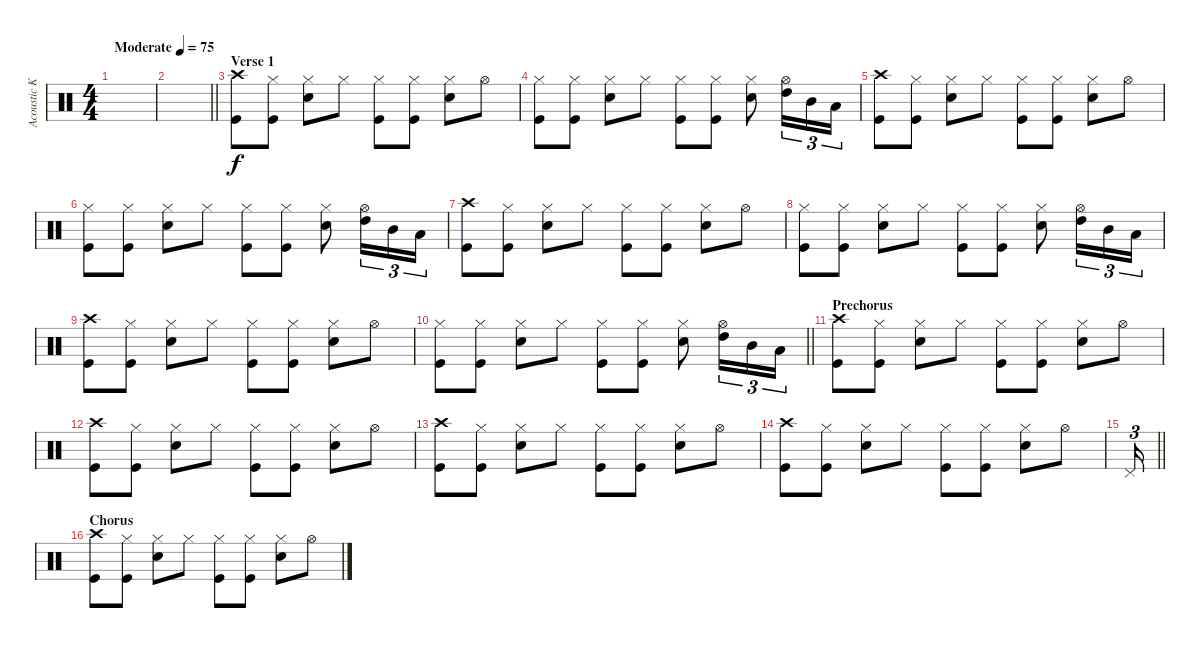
\track ("Acoustic Kit" "Acoustic K") {instrument percussion}
\staff {score}
\articulation defaults
\ts (4 4)
\tempo (75 "Moderate")
\clef neutral
\ks c
|
\barLineRight lightlight
|
\section ("" "Verse 1")
("Crash high (hit)" "Kick (hit)").8 ("Hi-Hat (closed)" "Kick (hit)").8 ("Hi-Hat (closed)" "Snare (hit) 2").8 "Hi-Hat (closed)".8 ("Hi-Hat (closed)" "Kick (hit)").8 ("Hi-Hat (closed)" "Kick (hit)").8 ("Hi-Hat (closed)" "Snare (hit) 2").8 "Hi-Hat (open)".8 |
("Hi-Hat (closed)" "Kick (hit)").8 ("Hi-Hat (closed)" "Kick (hit)").8 ("Hi-Hat (closed)" "Snare (hit) 2").8 "Hi-Hat (closed)".8 ("Hi-Hat (closed)" "Kick (hit)").8 ("Hi-Hat (closed)" "Kick (hit)").8 ("Hi-Hat (closed)" "Snare (hit) 2").8 ("Hi-Hat (open)" "High Tom (hit)").16{tu (3 2)} "Mid Tom (hit)".16{tu (3 2)} "Low Tom (hit)".16{tu (3 2)} |
("Crash high (hit)" "Kick (hit)").8 ("Hi-Hat (closed)" "Kick (hit)").8 ("Hi-Hat (closed)" "Snare (hit) 2").8 "Hi-Hat (closed)".8 ("Hi-Hat (closed)" "Kick (hit)").8 ("Hi-Hat (closed)" "Kick (hit)").8 ("Hi-Hat (closed)" "Snare (hit) 2").8 "Hi-Hat (open)".8 |
("Hi-Hat (closed)" "Kick (hit)").8 ("Hi-Hat (closed)" "Kick (hit)").8 ("Hi-Hat (closed)" "Snare (hit) 2").8 "Hi-Hat (closed)".8 ("Hi-Hat (closed)" "Kick (hit)").8 ("Hi-Hat (closed)" "Kick (hit)").8 ("Hi-Hat (closed)" "Snare (hit) 2").8 ("Hi-Hat (open)" "High Tom (hit)").16{tu (3 2)} "Mid Tom (hit)".16{tu (3 2)} "Low Tom (hit)".16{tu (3 2)} |
("Crash high (hit)" "Kick (hit)").8 ("Hi-Hat (closed)" "Kick (hit)").8 ("Hi-Hat (closed)" "Snare (hit) 2").8 "Hi-Hat (closed)".8 ("Hi-Hat (closed)" "Kick (hit)").8 ("Hi-Hat (closed)" "Kick (hit)").8 ("Hi-Hat (closed)" "Snare (hit) 2").8 "Hi-Hat (open)".8 |
("Hi-Hat (closed)" "Kick (hit)").8 ("Hi-Hat (closed)" "Kick (hit)").8 ("Hi-Hat (closed)" "Snare (hit) 2").8 "Hi-Hat (closed)".8 ("Hi-Hat (closed)" "Kick (hit)").8 ("Hi-Hat (closed)" "Kick (hit)").8 ("Hi-Hat (closed)" "Snare (hit) 2").8 ("Hi-Hat (open)" "High Tom (hit)").16{tu (3 2)} "Mid Tom (hit)".16{tu (3 2)} "Low Tom (hit)".16{tu (3 2)} |
("Crash high (hit)" "Kick (hit)").8 ("Hi-Hat (closed)" "Kick (hit)").8 ("Hi-Hat (closed)" "Snare (hit) 2").8 "Hi-Hat (closed)".8 ("Hi-Hat (closed)" "Kick (hit)").8 ("Hi-Hat (closed)" "Kick (hit)").8 ("Hi-Hat (closed)" "Snare (hit) 2").8 "Hi-Hat (open)".8 |
\barLineRight lightlight
("Hi-Hat (closed)" "Kick (hit)").8 ("Hi-Hat (closed)" "Kick (hit)").8 ("Hi-Hat (closed)" "Snare (hit) 2").8 "Hi-Hat (closed)".8 ("Hi-Hat (closed)" "Kick (hit)").8 ("Hi-Hat (closed)" "Kick (hit)").8 ("Hi-Hat (closed)" "Snare (hit) 2").8 ("Hi-Hat (open)" "High Tom (hit)").16{tu (3 2)} "Mid Tom (hit)".16{tu (3 2)} "Low Tom (hit)".16{tu (3 2)} |
\section ("" "Prechorus")
("Crash high (hit)" "Kick (hit)").8 ("Hi-Hat (closed)" "Kick (hit)").8 ("Hi-Hat (closed)" "Snare (hit) 2").8 "Hi-Hat (closed)".8 ("Hi-Hat (closed)" "Kick (hit)").8 ("Hi-Hat (closed)" "Kick (hit)").8 ("Hi-Hat (closed)" "Snare (hit) 2").8 "Hi-Hat (open)".8 |
("Crash high (hit)" "Kick (hit)").8 ("Hi-Hat (closed)" "Kick (hit)").8 ("Hi-Hat (closed)" "Snare (hit) 2").8 "Hi-Hat (closed)".8 ("Hi-Hat (closed)" "Kick (hit)").8 ("Hi-Hat (closed)" "Kick (hit)").8 ("Hi-Hat (closed)" "Snare (hit) 2").8 "Hi-Hat (open)".8 |
("Crash high (hit)" "Kick (hit)").8 ("Hi-Hat (closed)" "Kick (hit)").8 ("Hi-Hat (closed)" "Snare (hit) 2").8 "Hi-Hat (closed)".8 ("Hi-Hat (closed)" "Kick (hit)").8 ("Hi-Hat (closed)" "Kick (hit)").8 ("Hi-Hat (closed)" "Snare (hit) 2").8 "Hi-Hat (open)".8 |
("Crash high (hit)" "Kick (hit)").8 ("Hi-Hat (closed)" "Kick (hit)").8 ("Hi-Hat (closed)" "Snare (hit) 2").8 "Hi-Hat (closed)".8 ("Hi-Hat (closed)" "Kick (hit)").8 ("Hi-Hat (closed)" "Kick (hit)").8 ("Hi-Hat (closed)" "Snare (hit) 2").8 "Hi-Hat (open)".8 |
\barLineRight lightlight "Pedal Hi-Hat (hit)".16{tu (3 2)}
|
\section ("" "Chorus")
("Crash high (hit)" "Kick (hit)").8 ("Hi-Hat (closed)" "Kick (hit)").8 ("Hi-Hat (closed)" "Snare (hit) 2").8 "Hi-Hat (closed)".8 ("Hi-Hat (closed)" "Kick (hit)").8 ("Hi-Hat (closed)" "Kick (hit)").8 ("Hi-Hat (closed)" "Snare (hit) 2").8 "Hi-Hat (open)".8
